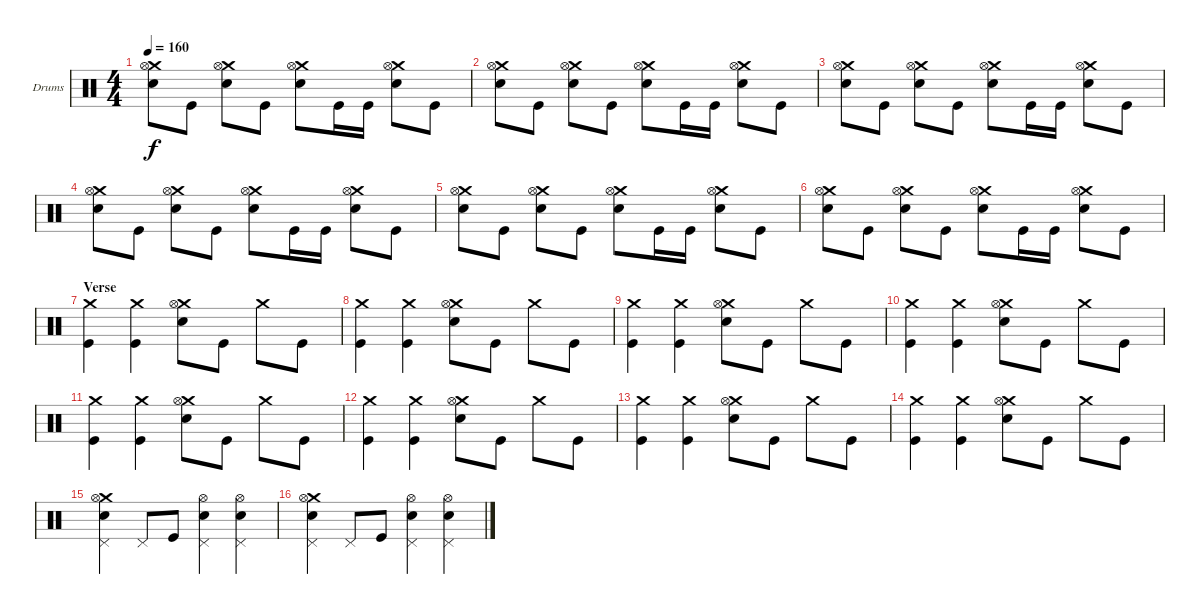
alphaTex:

\bracketExtendMode groupsimilarinstruments
\firstSystemTrackNameOrientation horizontal
\otherSystemsTrackNameOrientation horizontal
\track ("Lars Ulrich (Drum)" "Drums") {instrument percussion}
\staff {score}
\articulation defaults
\ts (4 4)
\tempo 160
\clef neutral
\ks c
("Crash medium (hit)" "Hi-Hat (open)" "Snare (hit) 2").8{dy f} "Kick (hit)".8 ("Crash medium (hit)" "Hi-Hat (open)" "Snare (hit) 2").8 "Kick (hit)".8 ("Crash medium (hit)" "Hi-Hat (open)" "Snare (hit) 2").8 "Kick (hit)".16 "Kick (hit)".16 ("Crash medium (hit)" "Hi-Hat (open)" "Snare (hit) 2").8 "Kick (hit)".8 |
("Crash medium (hit)" "Hi-Hat (open)" "Snare (hit) 2").8 "Kick (hit)".8 ("Crash medium (hit)" "Hi-Hat (open)" "Snare (hit) 2").8 "Kick (hit)".8 ("Crash medium (hit)" "Hi-Hat (open)" "Snare (hit) 2").8 "Kick (hit)".16 "Kick (hit)".16 ("Crash medium (hit)" "Hi-Hat (open)" "Snare (hit) 2").8 "Kick (hit)".8 |
("Crash medium (hit)" "Hi-Hat (open)" "Snare (hit) 2").8 "Kick (hit)".8 ("Crash medium (hit)" "Hi-Hat (open)" "Snare (hit) 2").8 "Kick (hit)".8 ("Crash medium (hit)" "Hi-Hat (open)" "Snare (hit) 2").8 "Kick (hit)".16 "Kick (hit)".16 ("Crash medium (hit)" "Hi-Hat (open)" "Snare (hit) 2").8 "Kick (hit)".8 |
("Crash medium (hit)" "Hi-Hat (open)" "Snare (hit) 2").8 "Kick (hit)".8 ("Crash medium (hit)" "Hi-Hat (open)" "Snare (hit) 2").8 "Kick (hit)".8 ("Crash medium (hit)" "Hi-Hat (open)" "Snare (hit) 2").8 "Kick (hit)".16 "Kick (hit)".16 ("Crash medium (hit)" "Hi-Hat (open)" "Snare (hit) 2").8 "Kick (hit)".8 |
("Crash medium (hit)" "Hi-Hat (open)" "Snare (hit) 2").8 "Kick (hit)".8 ("Crash medium (hit)" "Hi-Hat (open)" "Snare (hit) 2").8 "Kick (hit)".8 ("Crash medium (hit)" "Hi-Hat (open)" "Snare (hit) 2").8 "Kick (hit)".16 "Kick (hit)".16 ("Crash medium (hit)" "Hi-Hat (open)" "Snare (hit) 2").8 "Kick (hit)".8 |
("Crash medium (hit)" "Hi-Hat (open)" "Snare (hit) 2").8 "Kick (hit)".8 ("Crash medium (hit)" "Hi-Hat (open)" "Snare (hit) 2").8 "Kick (hit)".8 ("Crash medium (hit)" "Hi-Hat (open)" "Snare (hit) 2").8 "Kick (hit)".16 "Kick (hit)".16 ("Crash medium (hit)" "Hi-Hat (open)" "Snare (hit) 2").8 "Kick (hit)".8 |
\section ("" "Verse")
("Crash medium (hit)" "Kick (hit)").4 ("Crash medium (hit)" "Kick (hit)").4 ("Crash medium (hit)" "Hi-Hat (open)" "Snare (hit) 2").8 "Kick (hit)".8 "Crash medium (hit)".8 "Kick (hit)".8 |
("Crash medium (hit)" "Kick (hit)").4 ("Crash medium (hit)" "Kick (hit)").4 ("Crash medium (hit)" "Hi-Hat (open)" "Snare (hit) 2").8 "Kick (hit)".8 "Crash medium (hit)".8 "Kick (hit)".8 |
("Crash medium (hit)" "Kick (hit)").4 ("Crash medium (hit)" "Kick (hit)").4 ("Crash medium (hit)" "Hi-Hat (open)" "Snare (hit) 2").8 "Kick (hit)".8 "Crash medium (hit)".8 "Kick (hit)".8 |
("Crash medium (hit)" "Kick (hit)").4 ("Crash medium (hit)" "Kick (hit)").4 ("Crash medium (hit)" "Hi-Hat (open)" "Snare (hit) 2").8 "Kick (hit)".8 "Crash medium (hit)".8 "Kick (hit)".8 |
("Crash medium (hit)" "Kick (hit)").4 ("Crash medium (hit)" "Kick (hit)").4 ("Crash medium (hit)" "Hi-Hat (open)" "Snare (hit) 2").8 "Kick (hit)".8 "Crash medium (hit)".8 "Kick (hit)".8 |
("Crash medium (hit)" "Kick (hit)").4 ("Crash medium (hit)" "Kick (hit)").4 ("Crash medium (hit)" "Hi-Hat (open)" "Snare (hit) 2").8 "Kick (hit)".8 "Crash medium (hit)".8 "Kick (hit)".8 |
("Crash medium (hit)" "Kick (hit)").4 ("Crash medium (hit)" "Kick (hit)").4 ("Crash medium (hit)" "Hi-Hat (open)" "Snare (hit) 2").8 "Kick (hit)".8 "Crash medium (hit)".8 "Kick (hit)".8 |
("Crash medium (hit)" "Kick (hit)").4 ("Crash medium (hit)" "Kick (hit)").4 ("Crash medium (hit)" "Hi-Hat (open)" "Snare (hit) 2").8 "Kick (hit)".8 "Crash medium (hit)".8 "Kick (hit)".8 |
("Crash medium (hit)" "Pedal Hi-Hat (hit)" "Hi-Hat (open)" "Snare (hit) 2").4 "Pedal Hi-Hat (hit)".8 "Kick (hit)".8 ("Pedal Hi-Hat (hit)" "Hi-Hat (open)" "Snare (hit) 2").4 ("Pedal Hi-Hat (hit)" "Hi-Hat (open)" "Snare (hit) 2").4 |
("Crash medium (hit)" "Pedal Hi-Hat (hit)" "Hi-Hat (open)" "Snare (hit) 2").4 "Pedal Hi-Hat (hit)".8 "Kick (hit)".8 ("Pedal Hi-Hat (hit)" "Hi-Hat (open)" "Snare (hit) 2").4 ("Pedal Hi-Hat (hit)" "Hi-Hat (open)" "Snare (hit) 2").4
